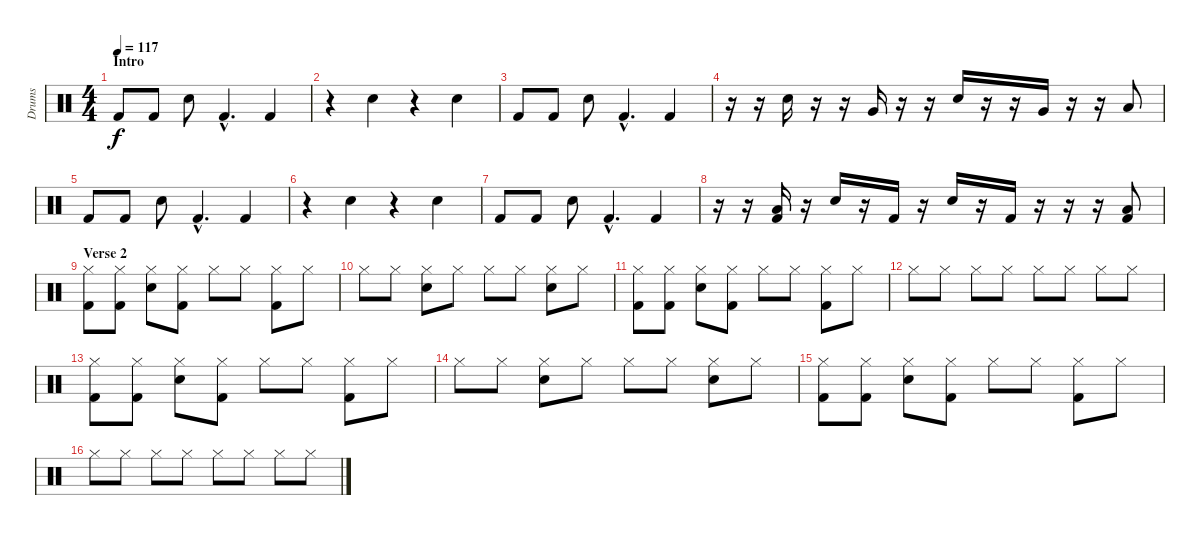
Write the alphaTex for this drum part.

\track ("Drums" "Drums") {instrument percussion}
\staff {score}
\articulation defaults
\ts (4 4)
\section ("" "Intro")
\tempo 117
\clef neutral
\ks c "Kick (hit) 2".8{dy f} "Kick (hit) 2".8 "Snare (hit) 2".8 "Kick (hit) 2"{hac}.4{d} "Kick (hit) 2".4
|
r.4 "Snare (hit) 2".4 r.4 "Snare (hit) 2".4 |
"Kick (hit) 2".8 "Kick (hit) 2".8 "Snare (hit) 2".8 "Kick (hit) 2"{hac}.4{d} "Kick (hit) 2".4 |
r.16 r.16 "Snare (hit) 2".16 r.16 r.16 "Very Low Tom (hit)".16 r.16 r.16 "Snare (hit) 2".16 r.16 r.16 "Very Low Tom (hit)".16 r.16 r.16 "Low Floor Tom (hit)".8 |
"Kick (hit) 2".8 "Kick (hit) 2".8 "Snare (hit) 2".8 "Kick (hit) 2"{hac}.4{d} "Kick (hit) 2".4 |
r.4 "Snare (hit) 2".4 r.4 "Snare (hit) 2".4 |
"Kick (hit) 2".8 "Kick (hit) 2".8 "Snare (hit) 2".8 "Kick (hit) 2"{hac}.4{d} "Kick (hit) 2".4 |
r.16 r.16 ("Low Floor Tom (hit)" "Kick (hit) 2").16 r.16 "Snare (hit) 2".16 r.16 "Kick (hit) 2".16 r.16 "Snare (hit) 2".16 r.16 "Kick (hit) 2".16 r.16 r.16 r.16 ("Low Floor Tom (hit)" "Kick (hit) 2").8 |
\section ("" "Verse 2")
("Hi-Hat (closed)" "Kick (hit) 2").8 ("Hi-Hat (closed)" "Kick (hit) 2").8 ("Hi-Hat (closed)" "Snare (hit) 2").8 ("Hi-Hat (closed)" "Kick (hit) 2").8 "Hi-Hat (closed)".8 "Hi-Hat (closed)".8 ("Hi-Hat (closed)" "Kick (hit) 2").8 "Hi-Hat (closed)".8 |
"Hi-Hat (closed)".8 "Hi-Hat (closed)".8 ("Hi-Hat (closed)" "Snare (hit) 2").8 "Hi-Hat (closed)".8 "Hi-Hat (closed)".8 "Hi-Hat (closed)".8 ("Hi-Hat (closed)" "Snare (hit) 2").8 "Hi-Hat (closed)".8 |
("Hi-Hat (closed)" "Kick (hit) 2").8 ("Hi-Hat (closed)" "Kick (hit) 2").8 ("Hi-Hat (closed)" "Snare (hit) 2").8 ("Hi-Hat (closed)" "Kick (hit) 2").8 "Hi-Hat (closed)".8 "Hi-Hat (closed)".8 ("Hi-Hat (closed)" "Kick (hit) 2").8 "Hi-Hat (closed)".8 |
"Hi-Hat (closed)".8 "Hi-Hat (closed)".8 "Hi-Hat (closed)".8 "Hi-Hat (closed)".8 "Hi-Hat (closed)".8 "Hi-Hat (closed)".8 "Hi-Hat (closed)".8 "Hi-Hat (closed)".8 |
("Hi-Hat (closed)" "Kick (hit) 2").8 ("Hi-Hat (closed)" "Kick (hit) 2").8 ("Hi-Hat (closed)" "Snare (hit) 2").8 ("Hi-Hat (closed)" "Kick (hit) 2").8 "Hi-Hat (closed)".8 "Hi-Hat (closed)".8 ("Hi-Hat (closed)" "Kick (hit) 2").8 "Hi-Hat (closed)".8 |
"Hi-Hat (closed)".8 "Hi-Hat (closed)".8 ("Hi-Hat (closed)" "Snare (hit) 2").8 "Hi-Hat (closed)".8 "Hi-Hat (closed)".8 "Hi-Hat (closed)".8 ("Hi-Hat (closed)" "Snare (hit) 2").8 "Hi-Hat (closed)".8 |
("Hi-Hat (closed)" "Kick (hit) 2").8 ("Hi-Hat (closed)" "Kick (hit) 2").8 ("Hi-Hat (closed)" "Snare (hit) 2").8 ("Hi-Hat (closed)" "Kick (hit) 2").8 "Hi-Hat (closed)".8 "Hi-Hat (closed)".8 ("Hi-Hat (closed)" "Kick (hit) 2").8 "Hi-Hat (closed)".8 |
"Hi-Hat (closed)".8 "Hi-Hat (closed)".8 "Hi-Hat (closed)".8 "Hi-Hat (closed)".8 "Hi-Hat (closed)".8 "Hi-Hat (closed)".8 "Hi-Hat (closed)".8 "Hi-Hat (closed)".8
